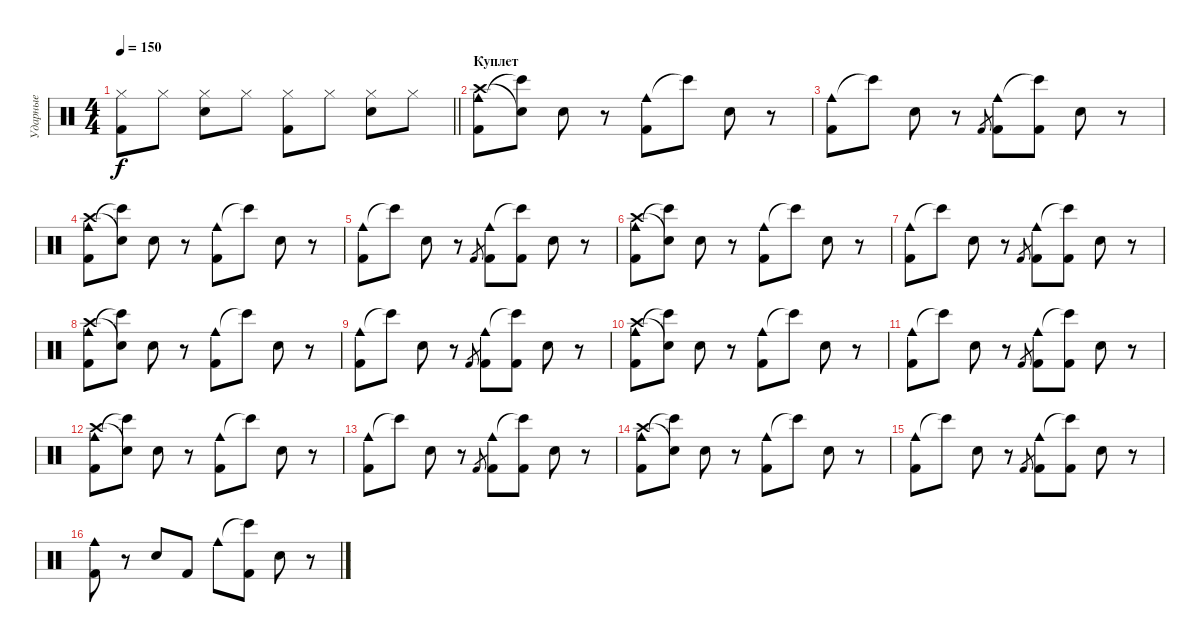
\track ("Ударные" "Ударные") {instrument percussion}
\staff {score}
\articulation defaults
\ts (4 4)
\tempo 150
\clef neutral
\barLineRight lightlight
\ks c
("Hi-Hat (closed)" "Kick (hit) 2").8{dy f} "Hi-Hat (closed)".8 ("Hi-Hat (closed)" "Snare (hit) 2").8 "Hi-Hat (closed)".8 ("Hi-Hat (closed)" "Kick (hit) 2").8 "Hi-Hat (closed)".8 ("Hi-Hat (closed)" "Snare (hit) 2").8 "Hi-Hat (closed)".8 |
\section ("" "Куплет")
("Cowbell medium (hit)" "Crash high (hit)" "Kick (hit) 2").8 ("Bongo High (hit)"{t} "Snare (hit)"{t}).8 "Snare (hit) 2".8 r.8 ("Cowbell medium (hit)" "Kick (hit) 2").8 "Bongo High (hit)"{t}.8 "Snare (hit) 2".8 r.8 |
("Cowbell medium (hit)" "Kick (hit) 2").8 "Bongo High (hit)"{t}.8 "Snare (hit) 2".8 r.8 "Kick (hit) 2".8{gr} ("Cowbell medium (hit)" "Kick (hit) 2").8 ("Bongo High (hit)"{t} "Kick (hit) 2").8 "Snare (hit) 2".8 r.8 |
("Cowbell medium (hit)" "Crash high (hit)" "Kick (hit) 2").8 ("Bongo High (hit)"{t} "Snare (hit)"{t}).8 "Snare (hit) 2".8 r.8 ("Cowbell medium (hit)" "Kick (hit) 2").8 "Bongo High (hit)"{t}.8 "Snare (hit) 2".8 r.8 |
("Cowbell medium (hit)" "Kick (hit) 2").8 "Bongo High (hit)"{t}.8 "Snare (hit) 2".8 r.8 "Kick (hit) 2".8{gr} ("Cowbell medium (hit)" "Kick (hit) 2").8 ("Bongo High (hit)"{t} "Kick (hit) 2").8 "Snare (hit) 2".8 r.8 |
("Cowbell medium (hit)" "Crash high (hit)" "Kick (hit) 2").8 ("Bongo High (hit)"{t} "Snare (hit)"{t}).8 "Snare (hit) 2".8 r.8 ("Cowbell medium (hit)" "Kick (hit) 2").8 "Bongo High (hit)"{t}.8 "Snare (hit) 2".8 r.8 |
("Cowbell medium (hit)" "Kick (hit) 2").8 "Bongo High (hit)"{t}.8 "Snare (hit) 2".8 r.8 "Kick (hit) 2".8{gr} ("Cowbell medium (hit)" "Kick (hit) 2").8 ("Bongo High (hit)"{t} "Kick (hit) 2").8 "Snare (hit) 2".8 r.8 |
("Cowbell medium (hit)" "Crash high (hit)" "Kick (hit) 2").8 ("Bongo High (hit)"{t} "Snare (hit)"{t}).8 "Snare (hit) 2".8 r.8 ("Cowbell medium (hit)" "Kick (hit) 2").8 "Bongo High (hit)"{t}.8 "Snare (hit) 2".8 r.8 |
("Cowbell medium (hit)" "Kick (hit) 2").8 "Bongo High (hit)"{t}.8 "Snare (hit) 2".8 r.8 "Kick (hit) 2".8{gr} ("Cowbell medium (hit)" "Kick (hit) 2").8 ("Bongo High (hit)"{t} "Kick (hit) 2").8 "Snare (hit) 2".8 r.8 |
("Cowbell medium (hit)" "Crash high (hit)" "Kick (hit) 2").8 ("Bongo High (hit)"{t} "Snare (hit)"{t}).8 "Snare (hit) 2".8 r.8 ("Cowbell medium (hit)" "Kick (hit) 2").8 "Bongo High (hit)"{t}.8 "Snare (hit) 2".8 r.8 |
("Cowbell medium (hit)" "Kick (hit) 2").8 "Bongo High (hit)"{t}.8 "Snare (hit) 2".8 r.8 "Kick (hit) 2".8{gr} ("Cowbell medium (hit)" "Kick (hit) 2").8 ("Bongo High (hit)"{t} "Kick (hit) 2").8 "Snare (hit) 2".8 r.8 |
("Cowbell medium (hit)" "Crash high (hit)" "Kick (hit) 2").8 ("Bongo High (hit)"{t} "Snare (hit)"{t}).8 "Snare (hit) 2".8 r.8 ("Cowbell medium (hit)" "Kick (hit) 2").8 "Bongo High (hit)"{t}.8 "Snare (hit) 2".8 r.8 |
("Cowbell medium (hit)" "Kick (hit) 2").8 "Bongo High (hit)"{t}.8 "Snare (hit) 2".8 r.8 "Kick (hit) 2".8{gr} ("Cowbell medium (hit)" "Kick (hit) 2").8 ("Bongo High (hit)"{t} "Kick (hit) 2").8 "Snare (hit) 2".8 r.8 |
("Cowbell medium (hit)" "Crash high (hit)" "Kick (hit) 2").8 ("Bongo High (hit)"{t} "Snare (hit)"{t}).8 "Snare (hit) 2".8 r.8 ("Cowbell medium (hit)" "Kick (hit) 2").8 "Bongo High (hit)"{t}.8 "Snare (hit) 2".8 r.8 |
("Cowbell medium (hit)" "Kick (hit) 2").8 "Bongo High (hit)"{t}.8 "Snare (hit) 2".8 r.8 "Kick (hit) 2".8{gr} ("Cowbell medium (hit)" "Kick (hit) 2").8 ("Bongo High (hit)"{t} "Kick (hit) 2").8 "Snare (hit) 2".8 r.8 |
("Cowbell medium (hit)" "Kick (hit) 2").8 r.8 "Snare (hit) 2".8 "Kick (hit) 2".8 "Cowbell medium (hit)".8 ("Bongo High (hit)"{t} "Kick (hit) 2").8 "Snare (hit) 2".8 r.8
